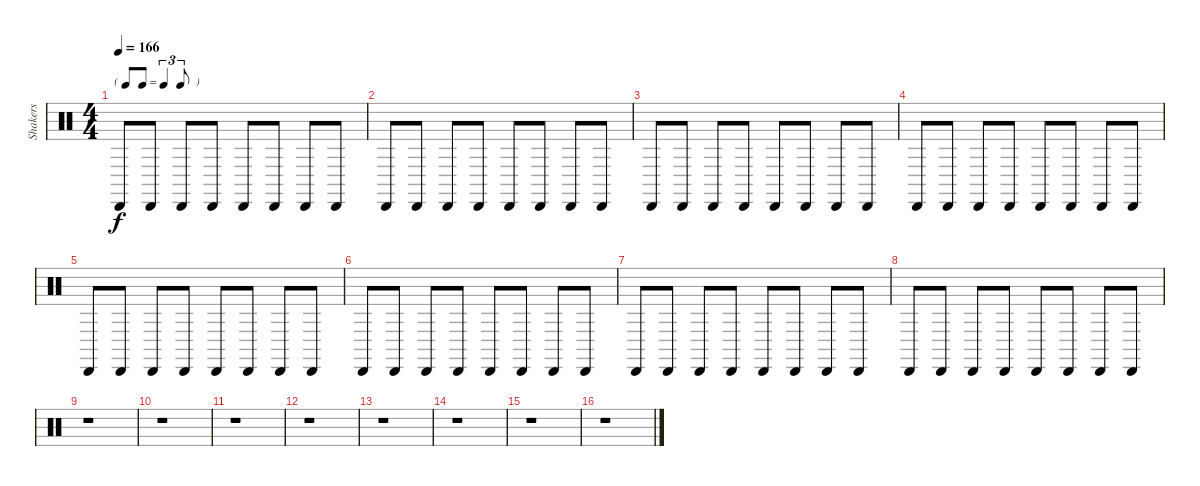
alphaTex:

\track ("Shakers" "Shakers") {instrument percussion}
\staff {score}
\articulation defaults
\ts (4 4)
\tf triplet8th
\tempo 166
\clef neutral
\ks c "Cabasa (hit)".8{dy f} "Cabasa (hit)".8 "Cabasa (hit)".8 "Cabasa (hit)".8 "Cabasa (hit)".8 "Cabasa (hit)".8 "Cabasa (hit)".8 "Cabasa (hit)".8
|
"Cabasa (hit)".8 "Cabasa (hit)".8 "Cabasa (hit)".8 "Cabasa (hit)".8 "Cabasa (hit)".8 "Cabasa (hit)".8 "Cabasa (hit)".8 "Cabasa (hit)".8 |
"Cabasa (hit)".8 "Cabasa (hit)".8 "Cabasa (hit)".8 "Cabasa (hit)".8 "Cabasa (hit)".8 "Cabasa (hit)".8 "Cabasa (hit)".8 "Cabasa (hit)".8 |
"Cabasa (hit)".8 "Cabasa (hit)".8 "Cabasa (hit)".8 "Cabasa (hit)".8 "Cabasa (hit)".8 "Cabasa (hit)".8 "Cabasa (hit)".8 "Cabasa (hit)".8 |
"Cabasa (hit)".8 "Cabasa (hit)".8 "Cabasa (hit)".8 "Cabasa (hit)".8 "Cabasa (hit)".8 "Cabasa (hit)".8 "Cabasa (hit)".8 "Cabasa (hit)".8 |
"Cabasa (hit)".8 "Cabasa (hit)".8 "Cabasa (hit)".8 "Cabasa (hit)".8 "Cabasa (hit)".8 "Cabasa (hit)".8 "Cabasa (hit)".8 "Cabasa (hit)".8 |
"Cabasa (hit)".8 "Cabasa (hit)".8 "Cabasa (hit)".8 "Cabasa (hit)".8 "Cabasa (hit)".8 "Cabasa (hit)".8 "Cabasa (hit)".8 "Cabasa (hit)".8 |
"Cabasa (hit)".8 "Cabasa (hit)".8 "Cabasa (hit)".8 "Cabasa (hit)".8 "Cabasa (hit)".8 "Cabasa (hit)".8 "Cabasa (hit)".8 "Cabasa (hit)".8 |
r.1 |
r.1 |
r.1 |
r.1 |
r.1 |
r.1 |
r.1 |
r.1
